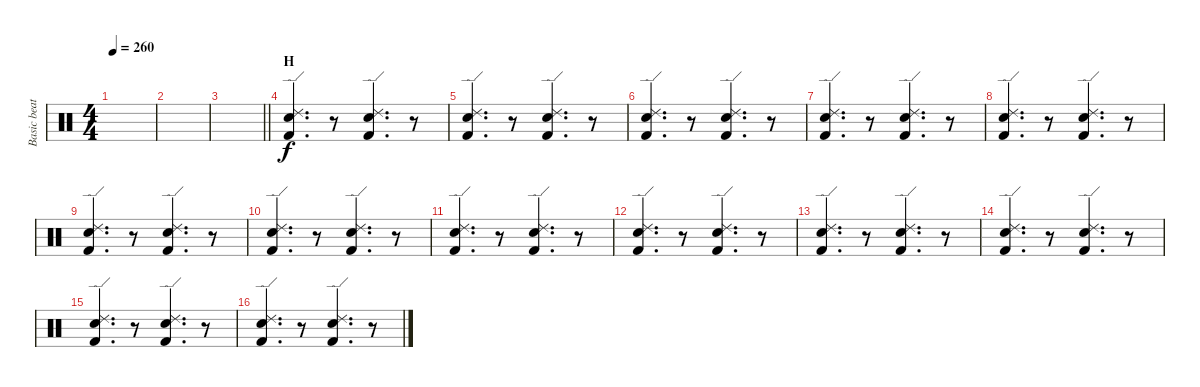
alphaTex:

\track ("Basic beat" "Basic beat") {instrument percussion}
\staff {score}
\articulation defaults
\ts (4 4)
\tempo 260
\clef neutral
\ks c
|
|
\barLineRight lightlight
|
\section ("" "H")
("Ride (edge) 2" "Electric Snare (hit)" "Kick (hit) 2").4{d} r.8 ("Ride (edge) 2" "Electric Snare (hit)" "Kick (hit) 2").4{d} r.8 |
("Ride (edge) 2" "Electric Snare (hit)" "Kick (hit) 2").4{d} r.8 ("Ride (edge) 2" "Electric Snare (hit)" "Kick (hit) 2").4{d} r.8 |
("Ride (edge) 2" "Electric Snare (hit)" "Kick (hit) 2").4{d} r.8 ("Ride (edge) 2" "Electric Snare (hit)" "Kick (hit) 2").4{d} r.8 |
("Ride (edge) 2" "Electric Snare (hit)" "Kick (hit) 2").4{d} r.8 ("Ride (edge) 2" "Electric Snare (hit)" "Kick (hit) 2").4{d} r.8 |
("Ride (edge) 2" "Electric Snare (hit)" "Kick (hit) 2").4{d} r.8 ("Ride (edge) 2" "Electric Snare (hit)" "Kick (hit) 2").4{d} r.8 |
("Ride (edge) 2" "Electric Snare (hit)" "Kick (hit) 2").4{d} r.8 ("Ride (edge) 2" "Electric Snare (hit)" "Kick (hit) 2").4{d} r.8 |
("Ride (edge) 2" "Electric Snare (hit)" "Kick (hit) 2").4{d} r.8 ("Ride (edge) 2" "Electric Snare (hit)" "Kick (hit) 2").4{d} r.8 |
("Ride (edge) 2" "Electric Snare (hit)" "Kick (hit) 2").4{d} r.8 ("Ride (edge) 2" "Electric Snare (hit)" "Kick (hit) 2").4{d} r.8 |
("Ride (edge) 2" "Electric Snare (hit)" "Kick (hit) 2").4{d} r.8 ("Ride (edge) 2" "Electric Snare (hit)" "Kick (hit) 2").4{d} r.8 |
("Ride (edge) 2" "Electric Snare (hit)" "Kick (hit) 2").4{d} r.8 ("Ride (edge) 2" "Electric Snare (hit)" "Kick (hit) 2").4{d} r.8 |
("Ride (edge) 2" "Electric Snare (hit)" "Kick (hit) 2").4{d} r.8 ("Ride (edge) 2" "Electric Snare (hit)" "Kick (hit) 2").4{d} r.8 |
("Ride (edge) 2" "Electric Snare (hit)" "Kick (hit) 2").4{d} r.8 ("Ride (edge) 2" "Electric Snare (hit)" "Kick (hit) 2").4{d} r.8 |
("Ride (edge) 2" "Electric Snare (hit)" "Kick (hit) 2").4{d} r.8 ("Ride (edge) 2" "Electric Snare (hit)" "Kick (hit) 2").4{d} r.8
